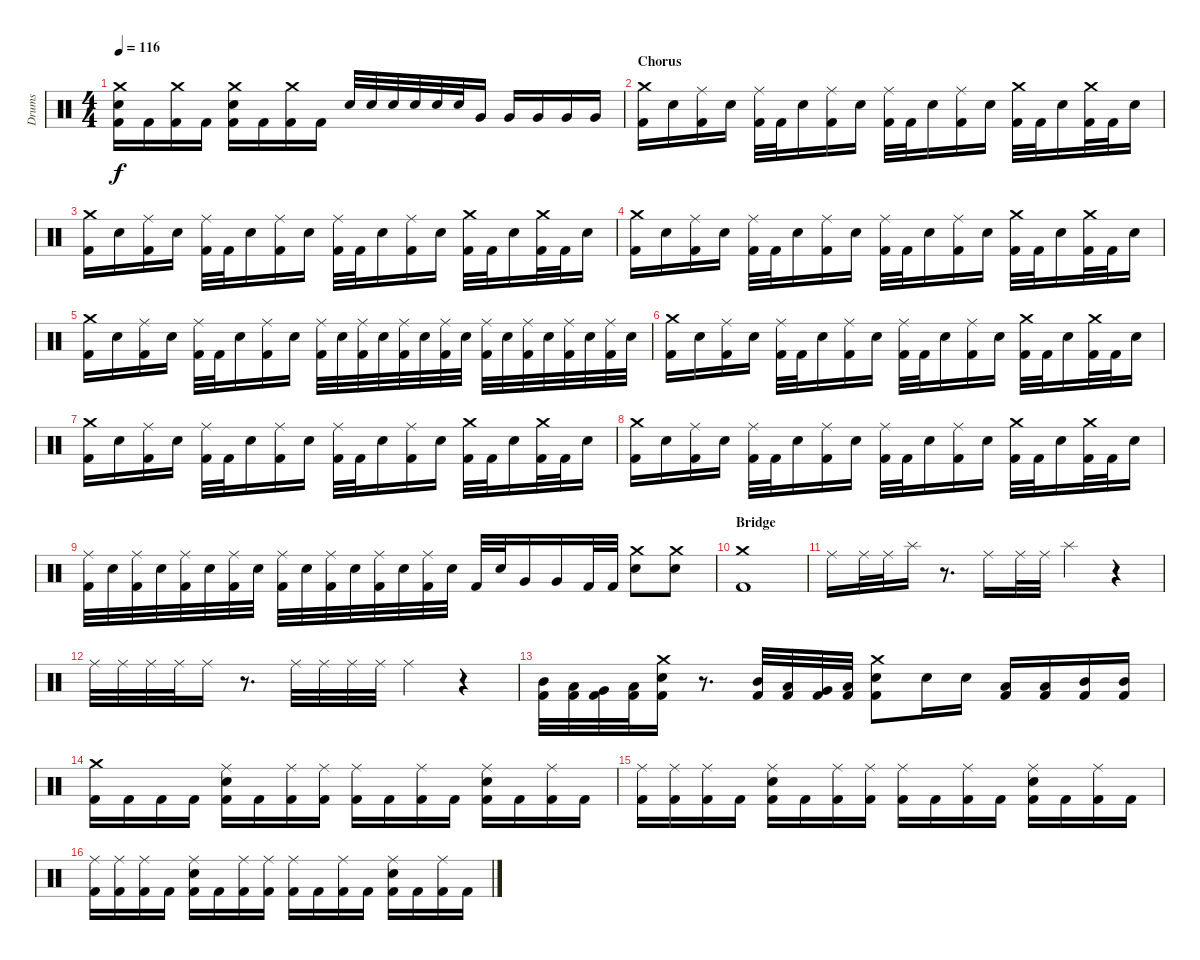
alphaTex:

\track ("Drums" "Drums") {instrument percussion}
\staff {score}
\articulation defaults
\ts (4 4)
\tempo 116
\clef neutral
\ks c
("Crash medium (hit)" "Electric Snare (hit)" "Kick (hit) 2").16{dy f} "Kick (hit) 2".16 ("Crash medium (hit)" "Kick (hit) 2").16 "Kick (hit) 2".16 ("Crash medium (hit)" "Electric Snare (hit)" "Kick (hit) 2").16 "Kick (hit) 2".16 ("Crash medium (hit)" "Kick (hit) 2").16 "Kick (hit) 2".16 "Electric Snare (hit)".32 "Electric Snare (hit)".32 "Electric Snare (hit)".32 "Electric Snare (hit)".32 "Electric Snare (hit)".32 "Electric Snare (hit)".32 "Very Low Tom (hit)".16 "Very Low Tom (hit)".16 "Very Low Tom (hit)".16 "Very Low Tom (hit)".16 "Very Low Tom (hit)".16 |
\section ("" "Chorus")
("Crash medium (hit)" "Kick (hit) 2").16 "Electric Snare (hit)".16 ("Ride (middle)" "Kick (hit) 2").16 "Electric Snare (hit)".16 ("Ride (middle)" "Kick (hit) 2").32 "Kick (hit) 2".32 "Electric Snare (hit)".16 ("Ride (middle)" "Kick (hit) 2").16 "Electric Snare (hit)".16 ("Ride (middle)" "Kick (hit) 2").32 "Kick (hit) 2".32 "Electric Snare (hit)".16 ("Ride (middle)" "Kick (hit) 2").16 "Electric Snare (hit)".16 ("Crash medium (hit)" "Kick (hit) 2").32 "Kick (hit) 2".32 "Electric Snare (hit)".16 ("Crash medium (hit)" "Kick (hit) 2").32 "Kick (hit) 2".32 "Electric Snare (hit)".16 |
("Crash medium (hit)" "Kick (hit) 2").16 "Electric Snare (hit)".16 ("Ride (middle)" "Kick (hit) 2").16 "Electric Snare (hit)".16 ("Ride (middle)" "Kick (hit) 2").32 "Kick (hit) 2".32 "Electric Snare (hit)".16 ("Ride (middle)" "Kick (hit) 2").16 "Electric Snare (hit)".16 ("Ride (middle)" "Kick (hit) 2").32 "Kick (hit) 2".32 "Electric Snare (hit)".16 ("Ride (middle)" "Kick (hit) 2").16 "Electric Snare (hit)".16 ("Crash medium (hit)" "Kick (hit) 2").32 "Kick (hit) 2".32 "Electric Snare (hit)".16 ("Crash medium (hit)" "Kick (hit) 2").32 "Kick (hit) 2".32 "Electric Snare (hit)".16 |
("Crash medium (hit)" "Kick (hit) 2").16 "Electric Snare (hit)".16 ("Ride (middle)" "Kick (hit) 2").16 "Electric Snare (hit)".16 ("Ride (middle)" "Kick (hit) 2").32 "Kick (hit) 2".32 "Electric Snare (hit)".16 ("Ride (middle)" "Kick (hit) 2").16 "Electric Snare (hit)".16 ("Ride (middle)" "Kick (hit) 2").32 "Kick (hit) 2".32 "Electric Snare (hit)".16 ("Ride (middle)" "Kick (hit) 2").16 "Electric Snare (hit)".16 ("Crash medium (hit)" "Kick (hit) 2").32 "Kick (hit) 2".32 "Electric Snare (hit)".16 ("Crash medium (hit)" "Kick (hit) 2").32 "Kick (hit) 2".32 "Electric Snare (hit)".16 |
("Crash medium (hit)" "Kick (hit) 2").16 "Electric Snare (hit)".16 ("Ride (middle)" "Kick (hit) 2").16 "Electric Snare (hit)".16 ("Ride (middle)" "Kick (hit) 2").32 "Kick (hit) 2".32 "Electric Snare (hit)".16 ("Ride (middle)" "Kick (hit) 2").16 "Electric Snare (hit)".16 ("Ride (middle)" "Kick (hit) 2").32 "Electric Snare (hit)".32 ("Ride (middle)" "Kick (hit) 2").32 "Electric Snare (hit)".32 ("Ride (middle)" "Kick (hit) 2").32 "Electric Snare (hit)".32 ("Ride (middle)" "Kick (hit) 2").32 "Electric Snare (hit)".32 ("Ride (middle)" "Kick (hit) 2").32 "Electric Snare (hit)".32 ("Ride (middle)" "Kick (hit) 2").32 "Electric Snare (hit)".32 ("Ride (middle)" "Kick (hit) 2").32 "Electric Snare (hit)".32 ("Ride (middle)" "Kick (hit) 2").32 "Electric Snare (hit)".32 |
("Crash medium (hit)" "Kick (hit) 2").16 "Electric Snare (hit)".16 ("Ride (middle)" "Kick (hit) 2").16 "Electric Snare (hit)".16 ("Ride (middle)" "Kick (hit) 2").32 "Kick (hit) 2".32 "Electric Snare (hit)".16 ("Ride (middle)" "Kick (hit) 2").16 "Electric Snare (hit)".16 ("Ride (middle)" "Kick (hit) 2").32 "Kick (hit) 2".32 "Electric Snare (hit)".16 ("Ride (middle)" "Kick (hit) 2").16 "Electric Snare (hit)".16 ("Crash medium (hit)" "Kick (hit) 2").32 "Kick (hit) 2".32 "Electric Snare (hit)".16 ("Crash medium (hit)" "Kick (hit) 2").32 "Kick (hit) 2".32 "Electric Snare (hit)".16 |
("Crash medium (hit)" "Kick (hit) 2").16 "Electric Snare (hit)".16 ("Ride (middle)" "Kick (hit) 2").16 "Electric Snare (hit)".16 ("Ride (middle)" "Kick (hit) 2").32 "Kick (hit) 2".32 "Electric Snare (hit)".16 ("Ride (middle)" "Kick (hit) 2").16 "Electric Snare (hit)".16 ("Ride (middle)" "Kick (hit) 2").32 "Kick (hit) 2".32 "Electric Snare (hit)".16 ("Ride (middle)" "Kick (hit) 2").16 "Electric Snare (hit)".16 ("Crash medium (hit)" "Kick (hit) 2").32 "Kick (hit) 2".32 "Electric Snare (hit)".16 ("Crash medium (hit)" "Kick (hit) 2").32 "Kick (hit) 2".32 "Electric Snare (hit)".16 |
("Crash medium (hit)" "Kick (hit) 2").16 "Electric Snare (hit)".16 ("Ride (middle)" "Kick (hit) 2").16 "Electric Snare (hit)".16 ("Ride (middle)" "Kick (hit) 2").32 "Kick (hit) 2".32 "Electric Snare (hit)".16 ("Ride (middle)" "Kick (hit) 2").16 "Electric Snare (hit)".16 ("Ride (middle)" "Kick (hit) 2").32 "Kick (hit) 2".32 "Electric Snare (hit)".16 ("Ride (middle)" "Kick (hit) 2").16 "Electric Snare (hit)".16 ("Crash medium (hit)" "Kick (hit) 2").32 "Kick (hit) 2".32 "Electric Snare (hit)".16 ("Crash medium (hit)" "Kick (hit) 2").32 "Kick (hit) 2".32 "Electric Snare (hit)".16 |
("Ride (middle)" "Kick (hit) 2").32 "Electric Snare (hit)".32 ("Ride (middle)" "Kick (hit) 2").32 "Electric Snare (hit)".32 ("Ride (middle)" "Kick (hit) 2").32 "Electric Snare (hit)".32 ("Ride (middle)" "Kick (hit) 2").32 "Electric Snare (hit)".32 ("Ride (middle)" "Kick (hit) 2").32 "Electric Snare (hit)".32 ("Ride (middle)" "Kick (hit) 2").32 "Electric Snare (hit)".32 ("Ride (middle)" "Kick (hit) 2").32 "Electric Snare (hit)".32 ("Ride (middle)" "Kick (hit) 2").32 "Electric Snare (hit)".32 "Kick (hit) 2".32 "Electric Snare (hit)".32 "Very Low Tom (hit)".16 "Very Low Tom (hit)".16 "Kick (hit) 2".32 "Kick (hit) 2".32 ("Crash medium (hit)" "Electric Snare (hit)").8 ("Crash medium (hit)" "Electric Snare (hit)").8 |
\section ("" "Bridge")
("Crash medium (hit)" "Kick (hit) 2").1 |
"Ride (middle)".16 "Ride (middle)".32 "Ride (middle)".32 "Splash (hit)".16 r.8{d} "Ride (middle)".16 "Ride (middle)".32 "Ride (middle)".32 "Splash (hit)".4 r.4 |
"Ride (middle)".32 "Ride (middle)".32 "Ride (middle)".32 "Ride (middle)".32 "Ride (middle)".16 r.8{d} "Ride (middle)".32 "Ride (middle)".32 "Ride (middle)".32 "Ride (middle)".32 "Ride (middle)".4 r.4 |
("Mid Tom (hit)" "Kick (hit) 2").32 ("Low Tom (hit)" "Kick (hit) 2").32 ("Very Low Tom (hit)" "Kick (hit) 2").32 ("Low Floor Tom (hit)" "Kick (hit) 2").32 ("Crash medium (hit)" "Electric Snare (hit)" "Kick (hit) 2").16 r.8{d} ("Mid Tom (hit)" "Kick (hit) 2").32 ("Low Tom (hit)" "Kick (hit) 2").32 ("Very Low Tom (hit)" "Kick (hit) 2").32 ("Low Floor Tom (hit)" "Kick (hit) 2").32 ("Crash medium (hit)" "Electric Snare (hit)" "Kick (hit) 2").8 "Electric Snare (hit)".16 "Electric Snare (hit)".16 ("Low Tom (hit)" "Kick (hit) 2").16 ("Low Tom (hit)" "Kick (hit) 2").16 ("Mid Tom (hit)" "Kick (hit) 2").16 ("Mid Tom (hit)" "Kick (hit) 2").16 |
("Crash medium (hit)" "Kick (hit) 2").16 "Kick (hit) 2".16 "Kick (hit) 2".16 "Kick (hit) 2".16 ("Ride (middle)" "Electric Snare (hit)" "Kick (hit) 2").16 "Kick (hit) 2".16 ("Ride (middle)" "Kick (hit) 2").16 ("Ride (middle)" "Kick (hit) 2").16 ("Ride (middle)" "Kick (hit) 2").16 "Kick (hit) 2".16 ("Ride (middle)" "Kick (hit) 2").16 "Kick (hit) 2".16 ("Ride (middle)" "Electric Snare (hit)" "Kick (hit) 2").16 "Kick (hit) 2".16 ("Ride (middle)" "Kick (hit) 2").16 "Kick (hit) 2".16 |
("Ride (middle)" "Kick (hit) 2").16 ("Ride (middle)" "Kick (hit) 2").16 ("Ride (middle)" "Kick (hit) 2").16 "Kick (hit) 2".16 ("Ride (middle)" "Electric Snare (hit)" "Kick (hit) 2").16 "Kick (hit) 2".16 ("Ride (middle)" "Kick (hit) 2").16 ("Ride (middle)" "Kick (hit) 2").16 ("Ride (middle)" "Kick (hit) 2").16 "Kick (hit) 2".16 ("Ride (middle)" "Kick (hit) 2").16 "Kick (hit) 2".16 ("Ride (middle)" "Electric Snare (hit)" "Kick (hit) 2").16 "Kick (hit) 2".16 ("Ride (middle)" "Kick (hit) 2").16 "Kick (hit) 2".16 |
("Ride (middle)" "Kick (hit) 2").16 ("Ride (middle)" "Kick (hit) 2").16 ("Ride (middle)" "Kick (hit) 2").16 "Kick (hit) 2".16 ("Ride (middle)" "Electric Snare (hit)" "Kick (hit) 2").16 "Kick (hit) 2".16 ("Ride (middle)" "Kick (hit) 2").16 ("Ride (middle)" "Kick (hit) 2").16 ("Ride (middle)" "Kick (hit) 2").16 "Kick (hit) 2".16 ("Ride (middle)" "Kick (hit) 2").16 "Kick (hit) 2".16 ("Ride (middle)" "Electric Snare (hit)" "Kick (hit) 2").16 "Kick (hit) 2".16 ("Ride (middle)" "Kick (hit) 2").16 "Kick (hit) 2".16
